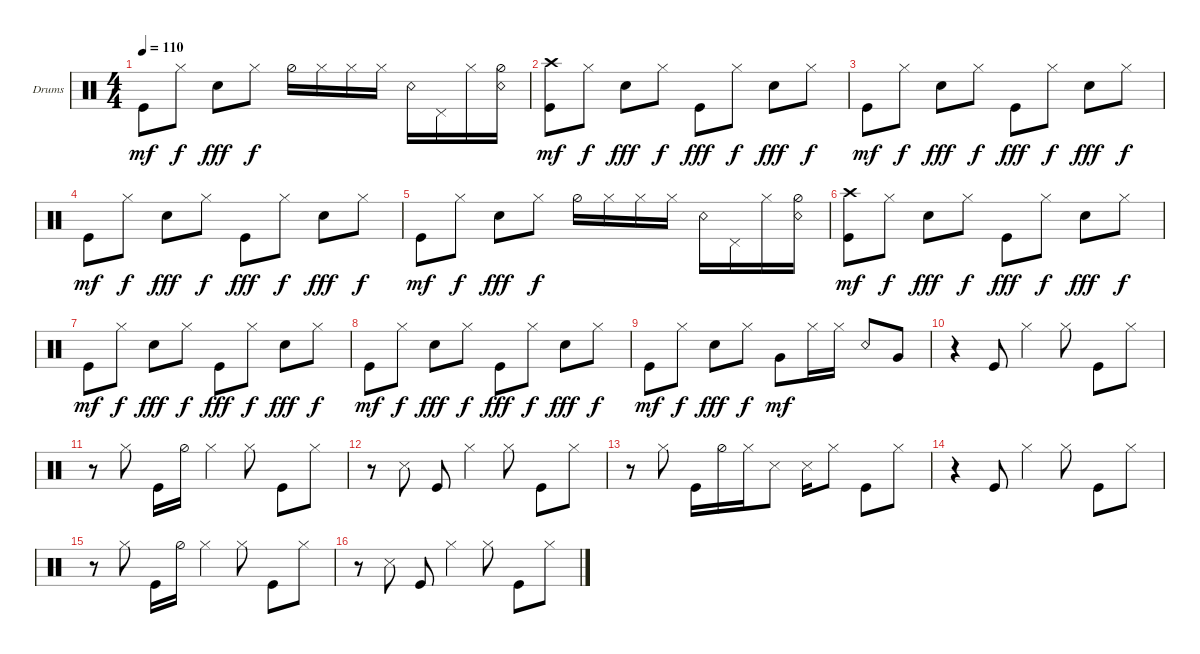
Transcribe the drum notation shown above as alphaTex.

\defaultSystemsLayout 4
\bracketExtendMode groupsimilarinstruments
\firstSystemTrackNameOrientation horizontal
\otherSystemsTrackNameOrientation horizontal
\track ("Drumkit" "Drums") {instrument percussion}
\staff {score}
\articulation defaults
\ts (4 4)
\tempo 110
\clef neutral
\ks c "Kick (hit)".8{dy mf} "Hi-Hat (closed)".8{dy f} "Snare (hit) 2".8{dy fff} "Hi-Hat (closed)".8{dy f} "Hi-Hat (half)".16 "Hi-Hat (closed)".16 "Hi-Hat (closed)".16 "Hi-Hat (closed)".16 "Snare (rim shot)".16 "Pedal Hi-Hat (hit)".16 "Hi-Hat (closed)".16
("Hi-Hat (half)" "Snare (rim shot)").16 |
("Crash high (hit)" "Kick (hit)").8{dy mf} "Hi-Hat (closed)".8{dy f} "Snare (hit) 2".8{dy fff} "Hi-Hat (closed)".8{dy f} "Kick (hit)".8{dy fff} "Hi-Hat (closed)".8{dy f} "Snare (hit) 2".8{dy fff} "Hi-Hat (closed)".8{dy f} |
"Kick (hit)".8{dy mf} "Hi-Hat (closed)".8{dy f} "Snare (hit) 2".8{dy fff} "Hi-Hat (closed)".8{dy f} "Kick (hit)".8{dy fff} "Hi-Hat (closed)".8{dy f} "Snare (hit) 2".8{dy fff} "Hi-Hat (closed)".8{dy f} |
"Kick (hit)".8{dy mf} "Hi-Hat (closed)".8{dy f} "Snare (hit) 2".8{dy fff} "Hi-Hat (closed)".8{dy f} "Kick (hit)".8{dy fff} "Hi-Hat (closed)".8{dy f} "Snare (hit) 2".8{dy fff} "Hi-Hat (closed)".8{dy f} |
"Kick (hit)".8{dy mf} "Hi-Hat (closed)".8{dy f} "Snare (hit) 2".8{dy fff} "Hi-Hat (closed)".8{dy f} "Hi-Hat (half)".16 "Hi-Hat (closed)".16 "Hi-Hat (closed)".16 "Hi-Hat (closed)".16 "Snare (rim shot)".16 "Pedal Hi-Hat (hit)".16 "Hi-Hat (closed)".16 ("Hi-Hat (half)" "Snare (rim shot)").16 |
("Crash high (hit)" "Kick (hit)").8{dy mf} "Hi-Hat (closed)".8{dy f} "Snare (hit) 2".8{dy fff} "Hi-Hat (closed)".8{dy f} "Kick (hit)".8{dy fff} "Hi-Hat (closed)".8{dy f} "Snare (hit) 2".8{dy fff} "Hi-Hat (closed)".8{dy f} |
"Kick (hit)".8{dy mf} "Hi-Hat (closed)".8{dy f} "Snare (hit) 2".8{dy fff} "Hi-Hat (closed)".8{dy f} "Kick (hit)".8{dy fff} "Hi-Hat (closed)".8{dy f} "Snare (hit) 2".8{dy fff} "Hi-Hat (closed)".8{dy f} |
"Kick (hit)".8{dy mf} "Hi-Hat (closed)".8{dy f} "Snare (hit) 2".8{dy fff} "Hi-Hat (closed)".8{dy f} "Kick (hit)".8{dy fff} "Hi-Hat (closed)".8{dy f} "Snare (hit) 2".8{dy fff} "Hi-Hat (closed)".8{dy f} |
"Kick (hit)".8{dy mf} "Hi-Hat (closed)".8{dy f} "Snare (hit) 2".8{dy fff} "Hi-Hat (closed)".8{dy f} "Very Low Tom (hit)".8{dy mf} "Hi-Hat (closed)".16 "Hi-Hat (closed)".16 "Snare (rim shot)".8 "Very Low Tom (hit)".8 |
r.4 "Kick (hit)".8 "Hi-Hat (closed)".4 "Hi-Hat (closed)".8 "Kick (hit)".8 "Hi-Hat (closed)".8 |
r.8 "Hi-Hat (closed)".8 "Kick (hit)".16 "Hi-Hat (half)".16 "Hi-Hat (closed)".4 "Hi-Hat (closed)".8 "Kick (hit)".8 "Hi-Hat (closed)".8 |
r.8 "Snare (side stick) 3".8 "Kick (hit)".8 "Hi-Hat (closed)".4 "Hi-Hat (closed)".8 "Kick (hit)".8 "Hi-Hat (closed)".8 |
r.8 "Hi-Hat (closed)".8 "Kick (hit)".16 "Hi-Hat (half)".16 "Hi-Hat (closed)".16 "Snare (side stick) 3".8 "Snare (side stick) 3".16 "Hi-Hat (closed)".8 "Kick (hit)".8 "Hi-Hat (closed)".8 |
r.4 "Kick (hit)".8 "Hi-Hat (closed)".4 "Hi-Hat (closed)".8 "Kick (hit)".8 "Hi-Hat (closed)".8 |
r.8 "Hi-Hat (closed)".8 "Kick (hit)".16 "Hi-Hat (half)".16 "Hi-Hat (closed)".4 "Hi-Hat (closed)".8 "Kick (hit)".8 "Hi-Hat (closed)".8 |
r.8 "Snare (side stick) 3".8 "Kick (hit)".8 "Hi-Hat (closed)".4 "Hi-Hat (closed)".8 "Kick (hit)".8 "Hi-Hat (closed)".8
